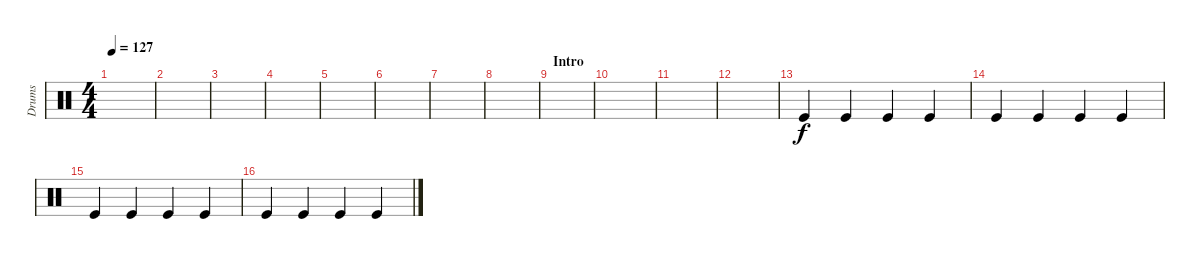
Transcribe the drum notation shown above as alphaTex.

\track ("Drums" "Drums") {instrument percussion}
\staff {score}
\articulation defaults
\ts (4 4)
\tempo 127
\clef neutral
\ks c
|
|
|
|
|
|
|
|
\section ("" "Intro")
|
|
|
|
"Kick (hit)".4 "Kick (hit)".4 "Kick (hit)".4 "Kick (hit)".4 |
"Kick (hit)".4 "Kick (hit)".4 "Kick (hit)".4 "Kick (hit)".4 |
"Kick (hit)".4 "Kick (hit)".4 "Kick (hit)".4 "Kick (hit)".4 |
"Kick (hit)".4 "Kick (hit)".4 "Kick (hit)".4 "Kick (hit)".4
